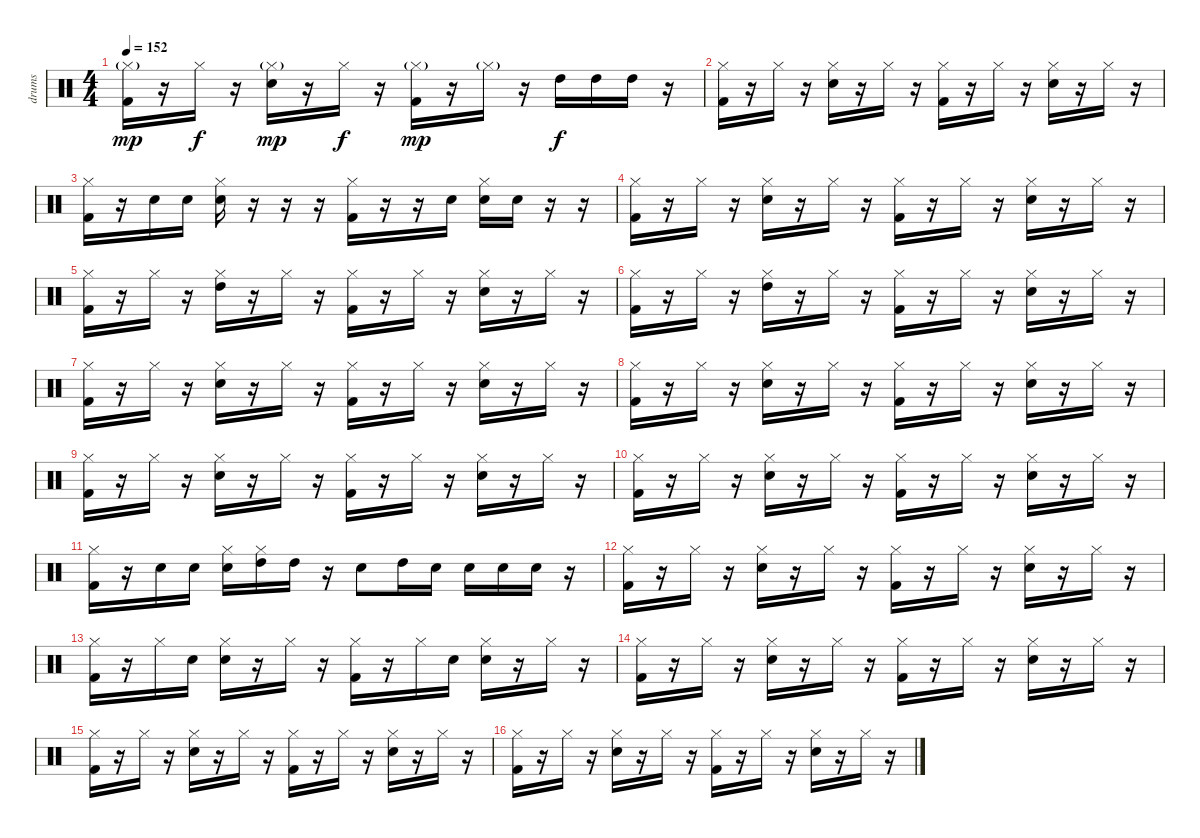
\track ("drums" "drums") {instrument percussion}
\staff {score}
\articulation defaults
\ts (4 4)
\tempo 152
\clef neutral
\ks c
("Hi-Hat (closed)"{g} "Kick (hit) 2").16{dy mp} r.16 "Hi-Hat (closed)".16{dy f} r.16 ("Hi-Hat (closed)"{g} "Electric Snare (hit)").16{dy mp} r.16 "Hi-Hat (closed)".16{dy f} r.16 ("Hi-Hat (closed)"{g} "Kick (hit) 2").16{dy mp} r.16 "Hi-Hat (closed)"{g}.16 r.16 "High Tom (hit)".16{dy f} "High Tom (hit)".16 "High Tom (hit)".16 r.16 |
("Hi-Hat (closed)" "Kick (hit) 2").16 r.16 "Hi-Hat (closed)".16 r.16 ("Hi-Hat (closed)" "Electric Snare (hit)").16 r.16 "Hi-Hat (closed)".16 r.16 ("Hi-Hat (closed)" "Kick (hit) 2").16 r.16 "Hi-Hat (closed)".16 r.16 ("Hi-Hat (closed)" "Electric Snare (hit)").16 r.16 "Hi-Hat (closed)".16 r.16 |
("Hi-Hat (closed)" "Kick (hit) 2").16 r.16 "Electric Snare (hit)".16 "Electric Snare (hit)".16 ("Hi-Hat (closed)" "Electric Snare (hit)").16 r.16 r.16 r.16 ("Hi-Hat (closed)" "Kick (hit) 2").16 r.16 r.16 "Electric Snare (hit)".16 ("Hi-Hat (closed)" "Electric Snare (hit)").16 "Electric Snare (hit)".16 r.16 r.16 |
("Hi-Hat (closed)" "Kick (hit) 2").16 r.16 "Hi-Hat (closed)".16 r.16 ("Hi-Hat (closed)" "Electric Snare (hit)").16 r.16 "Hi-Hat (closed)".16 r.16 ("Hi-Hat (closed)" "Kick (hit) 2").16 r.16 "Hi-Hat (closed)".16 r.16 ("Hi-Hat (closed)" "Electric Snare (hit)").16 r.16 "Hi-Hat (closed)".16 r.16 |
("Hi-Hat (closed)" "Kick (hit) 2").16 r.16 "Hi-Hat (closed)".16 r.16 ("Hi-Hat (closed)" "High Tom (hit)").16 r.16 "Hi-Hat (closed)".16 r.16 ("Hi-Hat (closed)" "Kick (hit) 2").16 r.16 "Hi-Hat (closed)".16 r.16 ("Hi-Hat (closed)" "Electric Snare (hit)").16 r.16 "Hi-Hat (closed)".16 r.16 |
("Hi-Hat (closed)" "Kick (hit) 2").16 r.16 "Hi-Hat (closed)".16 r.16 ("Hi-Hat (closed)" "High Tom (hit)").16 r.16 "Hi-Hat (closed)".16 r.16 ("Hi-Hat (closed)" "Kick (hit) 2").16 r.16 "Hi-Hat (closed)".16 r.16 ("Hi-Hat (closed)" "Electric Snare (hit)").16 r.16 "Hi-Hat (closed)".16 r.16 |
("Hi-Hat (closed)" "Kick (hit) 2").16 r.16 "Hi-Hat (closed)".16 r.16 ("Hi-Hat (closed)" "Electric Snare (hit)").16 r.16 "Hi-Hat (closed)".16 r.16 ("Hi-Hat (closed)" "Kick (hit) 2").16 r.16 "Hi-Hat (closed)".16 r.16 ("Hi-Hat (closed)" "Electric Snare (hit)").16 r.16 "Hi-Hat (closed)".16 r.16 |
("Hi-Hat (closed)" "Kick (hit) 2").16 r.16 "Hi-Hat (closed)".16 r.16 ("Hi-Hat (closed)" "Electric Snare (hit)").16 r.16 "Hi-Hat (closed)".16 r.16 ("Hi-Hat (closed)" "Kick (hit) 2").16 r.16 "Hi-Hat (closed)".16 r.16 ("Hi-Hat (closed)" "Electric Snare (hit)").16 r.16 "Hi-Hat (closed)".16 r.16 |
("Hi-Hat (closed)" "Kick (hit) 2").16 r.16 "Hi-Hat (closed)".16 r.16 ("Hi-Hat (closed)" "Electric Snare (hit)").16 r.16 "Hi-Hat (closed)".16 r.16 ("Hi-Hat (closed)" "Kick (hit) 2").16 r.16 "Hi-Hat (closed)".16 r.16 ("Hi-Hat (closed)" "Electric Snare (hit)").16 r.16 "Hi-Hat (closed)".16 r.16 |
("Hi-Hat (closed)" "Kick (hit) 2").16 r.16 "Hi-Hat (closed)".16 r.16 ("Hi-Hat (closed)" "Electric Snare (hit)").16 r.16 "Hi-Hat (closed)".16 r.16 ("Hi-Hat (closed)" "Kick (hit) 2").16 r.16 "Hi-Hat (closed)".16 r.16 ("Hi-Hat (closed)" "Electric Snare (hit)").16 r.16 "Hi-Hat (closed)".16 r.16 |
("Hi-Hat (closed)" "Kick (hit) 2").16 r.16 "Electric Snare (hit)".16 "Electric Snare (hit)".16 ("Hi-Hat (closed)" "Electric Snare (hit)").16 ("Hi-Hat (closed)" "High Tom (hit)").16 "High Tom (hit)".16 r.16 "Electric Snare (hit)".8{beam merge} "High Tom (hit)".16 "Electric Snare (hit)".16 "Electric Snare (hit)".16 "Electric Snare (hit)".16 "Electric Snare (hit)".16 r.16 |
("Hi-Hat (closed)" "Kick (hit) 2").16 r.16 "Hi-Hat (closed)".16 r.16 ("Hi-Hat (closed)" "Electric Snare (hit)").16 r.16 "Hi-Hat (closed)".16 r.16 ("Hi-Hat (closed)" "Kick (hit) 2").16 r.16 "Hi-Hat (closed)".16 r.16 ("Hi-Hat (closed)" "Electric Snare (hit)").16 r.16 "Hi-Hat (closed)".16 r.16 |
("Hi-Hat (closed)" "Kick (hit) 2").16 r.16 "Hi-Hat (closed)".16 "Electric Snare (hit)".16 ("Hi-Hat (closed)" "Electric Snare (hit)").16 r.16 "Hi-Hat (closed)".16 r.16 ("Hi-Hat (closed)" "Kick (hit) 2").16 r.16 "Hi-Hat (closed)".16 "Electric Snare (hit)".16 ("Hi-Hat (closed)" "Electric Snare (hit)").16 r.16 "Hi-Hat (closed)".16 r.16 |
("Hi-Hat (closed)" "Kick (hit) 2").16 r.16 "Hi-Hat (closed)".16 r.16 ("Hi-Hat (closed)" "Electric Snare (hit)").16 r.16 "Hi-Hat (closed)".16 r.16 ("Hi-Hat (closed)" "Kick (hit) 2").16 r.16 "Hi-Hat (closed)".16 r.16 ("Hi-Hat (closed)" "Electric Snare (hit)").16 r.16 "Hi-Hat (closed)".16 r.16 |
("Hi-Hat (closed)" "Kick (hit) 2").16 r.16 "Hi-Hat (closed)".16 r.16 ("Hi-Hat (closed)" "Electric Snare (hit)").16 r.16 "Hi-Hat (closed)".16 r.16 ("Hi-Hat (closed)" "Kick (hit) 2").16 r.16 "Hi-Hat (closed)".16 r.16 ("Hi-Hat (closed)" "Electric Snare (hit)").16 r.16 "Hi-Hat (closed)".16 r.16 |
("Hi-Hat (closed)" "Kick (hit) 2").16 r.16 "Hi-Hat (closed)".16 r.16 ("Hi-Hat (closed)" "Electric Snare (hit)").16 r.16 "Hi-Hat (closed)".16 r.16 ("Hi-Hat (closed)" "Kick (hit) 2").16 r.16 "Hi-Hat (closed)".16 r.16 ("Hi-Hat (closed)" "Electric Snare (hit)").16 r.16 "Hi-Hat (closed)".16 r.16
